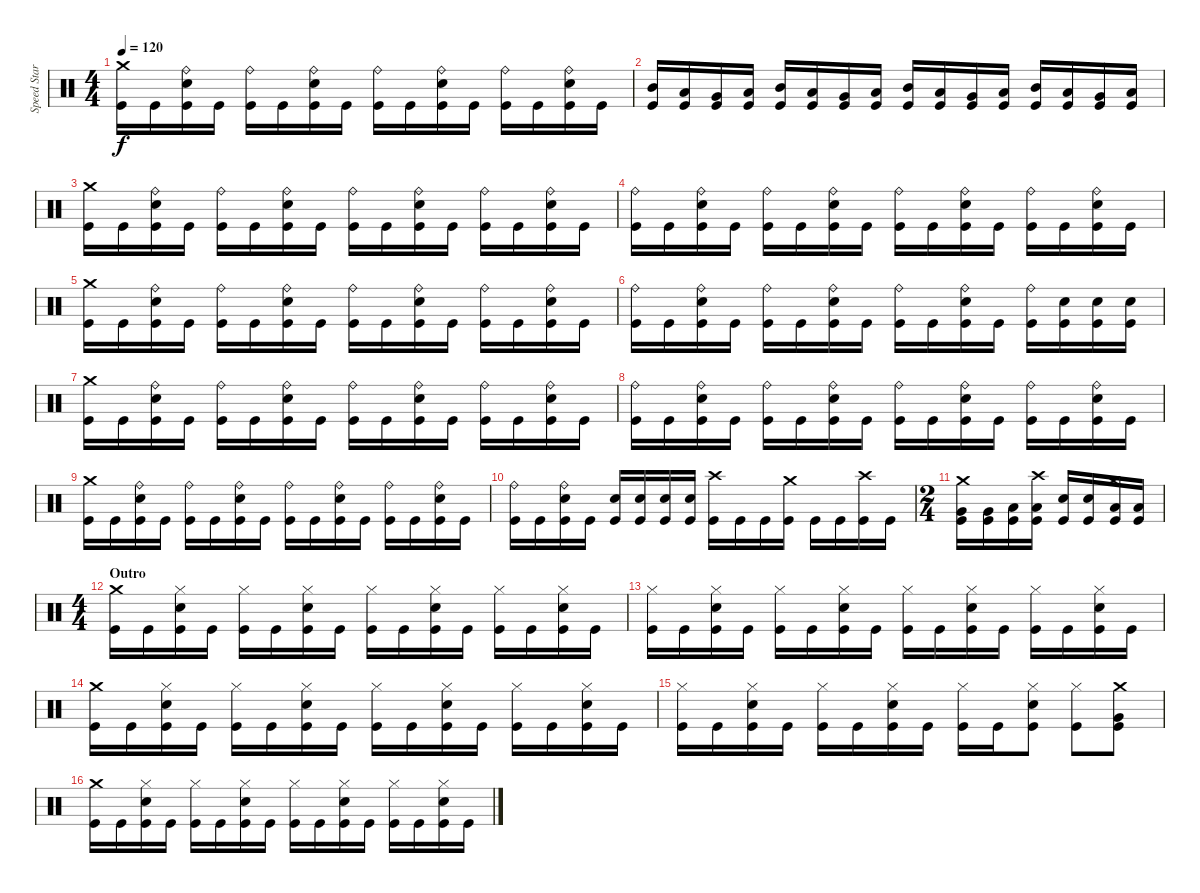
\track ("Speed Star" "Speed Star") {instrument percussion}
\staff {score}
\articulation defaults
\ts (4 4)
\tempo 120
\clef neutral
\ks c
("Kick (hit)" "Crash medium (hit)").16{dy f} "Kick (hit)".16 ("Kick (hit)" "Snare (hit) 2" "Ride (bell)").16 "Kick (hit)".16 ("Kick (hit)" "Ride (bell)").16 "Kick (hit)".16 ("Kick (hit)" "Snare (hit) 2" "Ride (bell)").16 "Kick (hit)".16 ("Kick (hit)" "Ride (bell)").16 "Kick (hit)".16 ("Kick (hit)" "Snare (hit) 2" "Ride (bell)").16 "Kick (hit)".16 ("Kick (hit)" "Ride (bell)").16 "Kick (hit)".16 ("Kick (hit)" "Snare (hit) 2" "Ride (bell)").16 "Kick (hit)".16 |
("Kick (hit)" "Mid Tom (hit)").16 ("Kick (hit)" "Low Tom (hit)").16 ("Kick (hit)" "Very Low Tom (hit)").16 ("Kick (hit)" "Low Floor Tom (hit)").16 ("Kick (hit)" "Mid Tom (hit)").16 ("Kick (hit)" "Low Tom (hit)").16 ("Kick (hit)" "Very Low Tom (hit)").16 ("Kick (hit)" "Low Floor Tom (hit)").16 ("Kick (hit)" "Mid Tom (hit)").16 ("Kick (hit)" "Low Tom (hit)").16 ("Kick (hit)" "Very Low Tom (hit)").16 ("Kick (hit)" "Low Floor Tom (hit)").16 ("Kick (hit)" "Mid Tom (hit)").16 ("Kick (hit)" "Low Tom (hit)").16 ("Kick (hit)" "Very Low Tom (hit)").16 ("Kick (hit)" "Low Floor Tom (hit)").16 |
("Kick (hit)" "Crash medium (hit)").16 "Kick (hit)".16 ("Kick (hit)" "Snare (hit) 2" "Ride (bell)").16 "Kick (hit)".16 ("Kick (hit)" "Ride (bell)").16 "Kick (hit)".16 ("Kick (hit)" "Snare (hit) 2" "Ride (bell)").16 "Kick (hit)".16 ("Kick (hit)" "Ride (bell)").16 "Kick (hit)".16 ("Kick (hit)" "Snare (hit) 2" "Ride (bell)").16 "Kick (hit)".16 ("Kick (hit)" "Ride (bell)").16 "Kick (hit)".16 ("Kick (hit)" "Snare (hit) 2" "Ride (bell)").16 "Kick (hit)".16 |
("Kick (hit)" "Ride (bell)").16 "Kick (hit)".16 ("Kick (hit)" "Snare (hit) 2" "Ride (bell)").16 "Kick (hit)".16 ("Kick (hit)" "Ride (bell)").16 "Kick (hit)".16 ("Kick (hit)" "Snare (hit) 2" "Ride (bell)").16 "Kick (hit)".16 ("Kick (hit)" "Ride (bell)").16 "Kick (hit)".16 ("Kick (hit)" "Snare (hit) 2" "Ride (bell)").16 "Kick (hit)".16 ("Kick (hit)" "Ride (bell)").16 "Kick (hit)".16 ("Kick (hit)" "Snare (hit) 2" "Ride (bell)").16 "Kick (hit)".16 |
("Kick (hit)" "Crash medium (hit)").16 "Kick (hit)".16 ("Kick (hit)" "Snare (hit) 2" "Ride (bell)").16 "Kick (hit)".16 ("Kick (hit)" "Ride (bell)").16 "Kick (hit)".16 ("Kick (hit)" "Snare (hit) 2" "Ride (bell)").16 "Kick (hit)".16 ("Kick (hit)" "Ride (bell)").16 "Kick (hit)".16 ("Kick (hit)" "Snare (hit) 2" "Ride (bell)").16 "Kick (hit)".16 ("Kick (hit)" "Ride (bell)").16 "Kick (hit)".16 ("Kick (hit)" "Snare (hit) 2" "Ride (bell)").16 "Kick (hit)".16 |
("Kick (hit)" "Ride (bell)").16 "Kick (hit)".16 ("Kick (hit)" "Snare (hit) 2" "Ride (bell)").16 "Kick (hit)".16 ("Kick (hit)" "Ride (bell)").16 "Kick (hit)".16 ("Kick (hit)" "Snare (hit) 2" "Ride (bell)").16 "Kick (hit)".16 ("Kick (hit)" "Ride (bell)").16 "Kick (hit)".16 ("Kick (hit)" "Snare (hit) 2" "Ride (bell)").16 "Kick (hit)".16 ("Kick (hit)" "Ride (bell)").16 ("Kick (hit)" "Snare (hit) 2").16 ("Kick (hit)" "Snare (hit) 2").16 ("Kick (hit)" "Snare (hit) 2").16 |
("Kick (hit)" "Crash medium (hit)").16 "Kick (hit)".16 ("Kick (hit)" "Snare (hit) 2" "Ride (bell)").16 "Kick (hit)".16 ("Kick (hit)" "Ride (bell)").16 "Kick (hit)".16 ("Kick (hit)" "Snare (hit) 2" "Ride (bell)").16 "Kick (hit)".16 ("Kick (hit)" "Ride (bell)").16 "Kick (hit)".16 ("Kick (hit)" "Snare (hit) 2" "Ride (bell)").16 "Kick (hit)".16 ("Kick (hit)" "Ride (bell)").16 "Kick (hit)".16 ("Kick (hit)" "Snare (hit) 2" "Ride (bell)").16 "Kick (hit)".16 |
("Kick (hit)" "Ride (bell)").16 "Kick (hit)".16 ("Kick (hit)" "Snare (hit) 2" "Ride (bell)").16 "Kick (hit)".16 ("Kick (hit)" "Ride (bell)").16 "Kick (hit)".16 ("Kick (hit)" "Snare (hit) 2" "Ride (bell)").16 "Kick (hit)".16 ("Kick (hit)" "Ride (bell)").16 "Kick (hit)".16 ("Kick (hit)" "Snare (hit) 2" "Ride (bell)").16 "Kick (hit)".16 ("Kick (hit)" "Ride (bell)").16 "Kick (hit)".16 ("Kick (hit)" "Snare (hit) 2" "Ride (bell)").16 "Kick (hit)".16 |
("Kick (hit)" "Crash medium (hit)").16 "Kick (hit)".16 ("Kick (hit)" "Snare (hit) 2" "Ride (bell)").16 "Kick (hit)".16 ("Kick (hit)" "Ride (bell)").16 "Kick (hit)".16 ("Kick (hit)" "Snare (hit) 2" "Ride (bell)").16 "Kick (hit)".16 ("Kick (hit)" "Ride (bell)").16 "Kick (hit)".16 ("Kick (hit)" "Snare (hit) 2" "Ride (bell)").16 "Kick (hit)".16 ("Kick (hit)" "Ride (bell)").16 "Kick (hit)".16 ("Kick (hit)" "Snare (hit) 2" "Ride (bell)").16 "Kick (hit)".16 |
("Kick (hit)" "Ride (bell)").16 "Kick (hit)".16 ("Kick (hit)" "Snare (hit) 2" "Ride (bell)").16 "Kick (hit)".16 ("Kick (hit)" "Snare (hit) 2").16 ("Kick (hit)" "Snare (hit) 2").16 ("Kick (hit)" "Snare (hit) 2").16 ("Kick (hit)" "Snare (hit) 2").16 ("Kick (hit)" "Crash high (hit)").16 "Kick (hit)".16 "Kick (hit)".16 ("Kick (hit)" "Crash medium (hit)").16 "Kick (hit)".16 "Kick (hit)".16 ("Kick (hit)" "Crash high (hit)").16 "Kick (hit)".16 |
\ts (2 4)
("Kick (hit)" "Very Low Tom (hit)" "Crash medium (hit)").16 ("Kick (hit)" "Very Low Tom (hit)").16 ("Kick (hit)" "Low Floor Tom (hit)").16 ("Kick (hit)" "Low Floor Tom (hit)" "Crash high (hit)").16 ("Kick (hit)" "Snare (hit) 2").16 ("Kick (hit)" "Snare (hit) 2").16 ("Kick (hit)" "Low Floor Tom (hit)" "Crash medium (hit)").16 ("Kick (hit)" "Low Floor Tom (hit)").16 |
\ts (4 4)
\section ("" "Outro")
("Kick (hit)" "Crash medium (hit)").16 "Kick (hit)".16 ("Kick (hit)" "Snare (hit) 2" "Hi-Hat (closed)").16 "Kick (hit)".16 ("Kick (hit)" "Hi-Hat (closed)").16 "Kick (hit)".16 ("Kick (hit)" "Snare (hit) 2" "Hi-Hat (closed)").16 "Kick (hit)".16 ("Kick (hit)" "Hi-Hat (closed)").16 "Kick (hit)".16 ("Kick (hit)" "Snare (hit) 2" "Hi-Hat (closed)").16 "Kick (hit)".16 ("Kick (hit)" "Hi-Hat (closed)").16 "Kick (hit)".16 ("Kick (hit)" "Snare (hit) 2" "Hi-Hat (closed)").16 "Kick (hit)".16 |
("Kick (hit)" "Hi-Hat (closed)").16 "Kick (hit)".16 ("Kick (hit)" "Snare (hit) 2" "Hi-Hat (closed)").16 "Kick (hit)".16 ("Kick (hit)" "Hi-Hat (closed)").16 "Kick (hit)".16 ("Kick (hit)" "Snare (hit) 2" "Hi-Hat (closed)").16 "Kick (hit)".16 ("Kick (hit)" "Hi-Hat (closed)").16 "Kick (hit)".16 ("Kick (hit)" "Snare (hit) 2" "Hi-Hat (closed)").16 "Kick (hit)".16 ("Kick (hit)" "Hi-Hat (closed)").16 "Kick (hit)".16 ("Kick (hit)" "Snare (hit) 2" "Hi-Hat (closed)").16 "Kick (hit)".16 |
("Kick (hit)" "Crash medium (hit)").16 "Kick (hit)".16 ("Kick (hit)" "Snare (hit) 2" "Hi-Hat (closed)").16 "Kick (hit)".16 ("Kick (hit)" "Hi-Hat (closed)").16 "Kick (hit)".16 ("Kick (hit)" "Snare (hit) 2" "Hi-Hat (closed)").16 "Kick (hit)".16 ("Kick (hit)" "Hi-Hat (closed)").16 "Kick (hit)".16 ("Kick (hit)" "Snare (hit) 2" "Hi-Hat (closed)").16 "Kick (hit)".16 ("Kick (hit)" "Hi-Hat (closed)").16 "Kick (hit)".16 ("Kick (hit)" "Snare (hit) 2" "Hi-Hat (closed)").16 "Kick (hit)".16 |
("Kick (hit)" "Hi-Hat (closed)").16 "Kick (hit)".16 ("Kick (hit)" "Snare (hit) 2" "Hi-Hat (closed)").16 "Kick (hit)".16 ("Kick (hit)" "Hi-Hat (closed)").16 "Kick (hit)".16 ("Kick (hit)" "Snare (hit) 2" "Hi-Hat (closed)").16 "Kick (hit)".16 ("Kick (hit)" "Hi-Hat (closed)").16 "Kick (hit)".16 ("Kick (hit)" "Snare (hit) 2" "Hi-Hat (closed)").8 ("Kick (hit)" "Hi-Hat (closed)").8 ("Kick (hit)" "Very Low Tom (hit)" "Crash medium (hit)").8 |
("Kick (hit)" "Crash medium (hit)").16 "Kick (hit)".16 ("Kick (hit)" "Snare (hit) 2" "Hi-Hat (closed)").16 "Kick (hit)".16 ("Kick (hit)" "Hi-Hat (closed)").16 "Kick (hit)".16 ("Kick (hit)" "Snare (hit) 2" "Hi-Hat (closed)").16 "Kick (hit)".16 ("Kick (hit)" "Hi-Hat (closed)").16 "Kick (hit)".16 ("Kick (hit)" "Snare (hit) 2" "Hi-Hat (closed)").16 "Kick (hit)".16 ("Kick (hit)" "Hi-Hat (closed)").16 "Kick (hit)".16 ("Kick (hit)" "Snare (hit) 2" "Hi-Hat (closed)").16 "Kick (hit)".16
